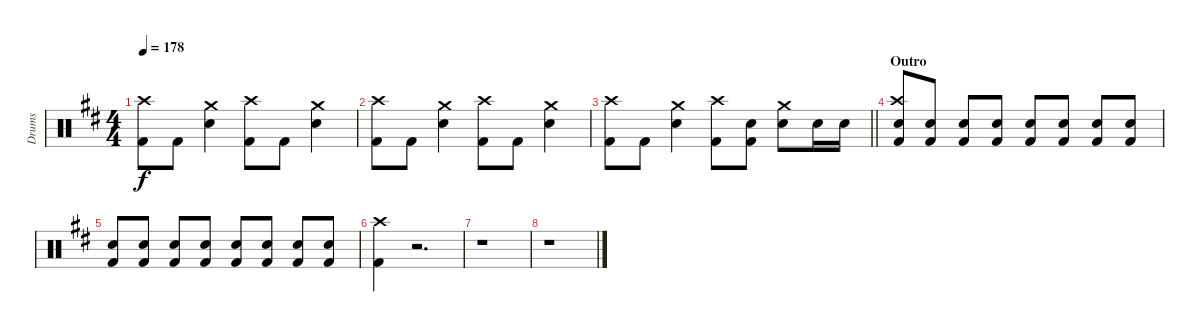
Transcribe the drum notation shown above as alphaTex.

\track ("Drums" "Drums") {instrument percussion}
\staff {score}
\articulation defaults
\ts (4 4)
\tempo 178
\clef neutral
\ks d
("Kick (hit) 2" "Crash high (hit)").8{dy f} "Kick (hit) 2".8 ("Crash medium (hit)" "Snare (hit) 2").4 ("Kick (hit) 2" "Crash high (hit)").8 "Kick (hit) 2".8 ("Crash medium (hit)" "Snare (hit) 2").4 |
("Kick (hit) 2" "Crash high (hit)").8 "Kick (hit) 2".8 ("Crash medium (hit)" "Snare (hit) 2").4 ("Kick (hit) 2" "Crash high (hit)").8 "Kick (hit) 2".8 ("Crash medium (hit)" "Snare (hit) 2").4 |
\barLineRight lightlight
("Kick (hit) 2" "Crash high (hit)").8 "Kick (hit) 2".8 ("Crash medium (hit)" "Snare (hit) 2").4 ("Kick (hit) 2" "Crash high (hit)").8 ("Kick (hit) 2" "Snare (hit) 2").8 ("Crash medium (hit)" "Snare (hit) 2").8 "Snare (hit) 2".16 "Snare (hit) 2".16 |
\section ("" "Outro")
("Kick (hit) 2" "Crash high (hit)" "Snare (hit) 2").8 ("Kick (hit) 2" "Snare (hit) 2").8 ("Kick (hit) 2" "Snare (hit) 2").8 ("Kick (hit) 2" "Snare (hit) 2").8 ("Kick (hit) 2" "Snare (hit) 2").8 ("Kick (hit) 2" "Snare (hit) 2").8 ("Kick (hit) 2" "Snare (hit) 2").8 ("Kick (hit) 2" "Snare (hit) 2").8 |
("Kick (hit) 2" "Snare (hit) 2").8 ("Kick (hit) 2" "Snare (hit) 2").8 ("Kick (hit) 2" "Snare (hit) 2").8 ("Kick (hit) 2" "Snare (hit) 2").8 ("Kick (hit) 2" "Snare (hit) 2").8 ("Kick (hit) 2" "Snare (hit) 2").8 ("Kick (hit) 2" "Snare (hit) 2").8 ("Kick (hit) 2" "Snare (hit) 2").8 |
("Kick (hit) 2" "Crash high (hit)").4 r.2{d} |
r.1 |
r.1
